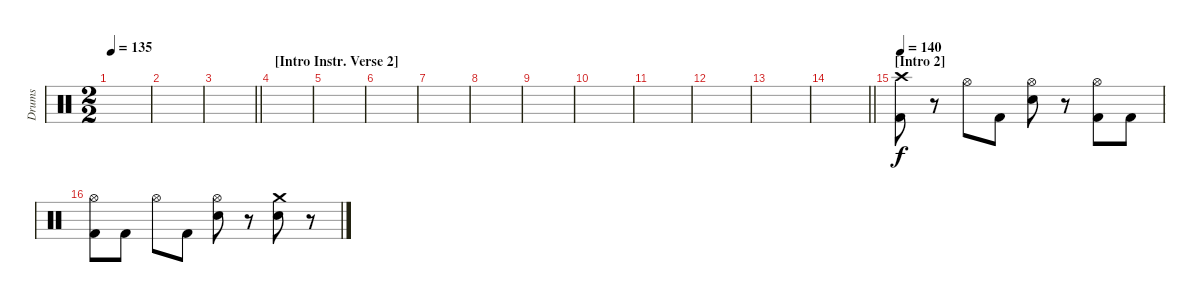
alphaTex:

\track ("Drums" "Drums") {instrument percussion}
\staff {score}
\articulation defaults
\ts (2 2)
\tempo 135
\clef neutral
\ks c
|
|
\barLineRight lightlight
|
\section ("" "[Intro Instr. Verse 2]")
|
|
|
|
|
|
|
|
|
|
\barLineRight lightlight
|
\section ("" "[Intro 2]")
\tempo 140
("Crash high (hit)" "Kick (hit) 2").8 r.8 "Hi-Hat (open)".8 "Kick (hit) 2".8 ("Hi-Hat (open)" "Snare (hit) 2").8 r.8 ("Hi-Hat (open)" "Kick (hit) 2").8 "Kick (hit) 2".8 |
("Hi-Hat (open)" "Kick (hit) 2").8 "Kick (hit) 2".8 "Hi-Hat (open)".8 "Kick (hit) 2".8 ("Hi-Hat (open)" "Snare (hit) 2").8 r.8 ("Crash medium (hit)" "Snare (hit) 2").8 r.8
